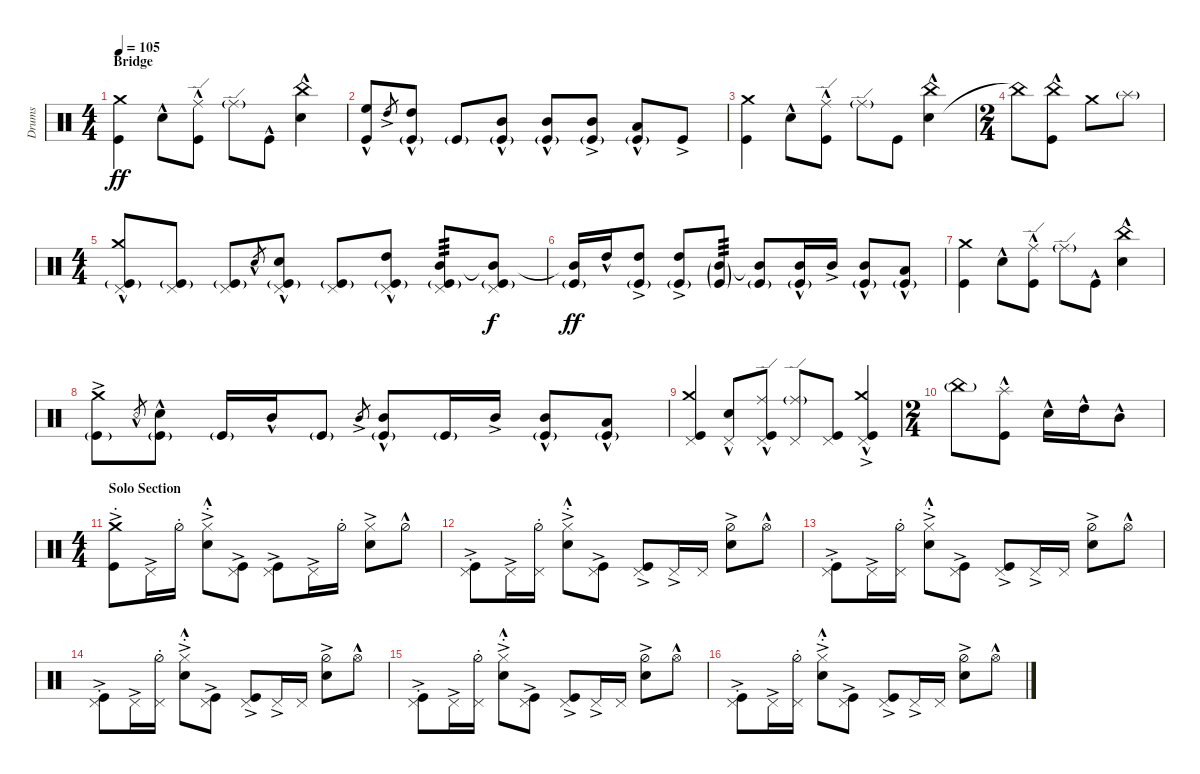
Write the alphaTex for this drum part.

\defaultSystemsLayout 4
\otherSystemsTrackNameOrientation horizontal
\chordDiagramsInScore
\track ("Drumkit" "Drums") {instrument percussion}
\staff {score}
\articulation defaults
\ts (4 4)
\section ("" "Bridge")
\tempo 105
\clef neutral
\scale
0.5
\ks c
("Kick (hit)" "Crash medium (hit)").4{dy ff} "Snare (hit) 2"{hac}.8 ("Kick (hit)"{hac} "Ride (edge)"{hac}).8 "Ride (edge)"{g}.8 "Kick (hit)"{hac}.8 ("Snare (hit) 2"{hac} "China (hit)"{hac}).4 |
\scale
0.5 ("Kick (hit)"{hac} "High Floor Tom (hit)"{hac}).8 "High Tom (hit)"{ac}.8{gr} ("Kick (hit)"{g} "High Tom (hit)"{hac}).8 "Kick (hit)"{g}.8 ("Kick (hit)"{g} "Mid Tom (hit)"{hac}).8 ("Kick (hit)"{g} "Mid Tom (hit)"{hac}).8 ("Kick (hit)"{g} "Mid Tom (hit)"{ac}).8 ("Kick (hit)"{g} "Low Tom (hit)"{hac}).8 "Kick (hit)"{ac}.8 |
\scale
0.5 ("Kick (hit)" "Crash medium (hit)").4 "Snare (hit) 2"{hac}.8 ("Kick (hit)" "Ride (edge)"{hac}).8 "Ride (edge)"{g}.8 "Kick (hit)".8 ("Snare (hit) 2"{hac} "China (hit)"{hac}).4 |
\ts (2 4)
\scale
0.368794 "China (hit)"{t}.8 ("China (hit)"{hac} "Kick (hit)").8 "Crash medium (hit)".8 "Splash (hit)"{g}.8 |
\ts (4 4)
\scale
0.631206 ("Crash medium (hit)"{hac} "Pedal Hi-Hat (hit)" "Kick (hit)"{g}).8 ("Pedal Hi-Hat (hit)" "Kick (hit)"{g}).8 ("Pedal Hi-Hat (hit)" "Kick (hit)"{g}).8 "Snare (hit) 2"{hac}.8{gr} ("Snare (hit) 2"{hac} "Pedal Hi-Hat (hit)" "Kick (hit)"{g}).8 ("Pedal Hi-Hat (hit)" "Kick (hit)"{g}).8 ("High Tom (hit)"{hac} "Pedal Hi-Hat (hit)" "Kick (hit)"{g}).8 ("Mid Tom (hit)" "Pedal Hi-Hat (hit)" "Kick (hit)"{g}).8{tp 3} ("Mid Tom (hit)"{t} "Pedal Hi-Hat (hit)" "Kick (hit)"{g}).8{dy f} |
\scale
0.631206 ("Mid Tom (hit)"{t} "Kick (hit)"{g}).16{dy ff} "High Tom (hit)"{hac}.16 ("High Tom (hit)"{ac} "Kick (hit)"{g}).8 ("Kick (hit)"{g} "High Tom (hit)"{ac}).8 ("Kick (hit)"{g} "Mid Tom (hit)"{g}).8{tp 3} ("Kick (hit)"{g} "Mid Tom (hit)"{t}).8 ("Kick (hit)"{g} "Mid Tom (hit)"{hac}).16 "Mid Tom (hit)"{ac}.16 ("Kick (hit)"{g} "Mid Tom (hit)"{hac}).8 ("Kick (hit)"{g} "Low Tom (hit)"{hac}).8 |
\scale
0.368794 ("Kick (hit)" "Crash medium (hit)").4 "Snare (hit) 2"{hac}.8 ("Kick (hit)"{hac} "Ride (edge)"{hac}).8 "Ride (edge)"{g}.8 "Kick (hit)"{hac}.8 ("Snare (hit) 2"{hac} "China (hit)"{hac}).4 |
\scale
0.5 ("Kick (hit)"{g} "Crash medium (hit)"{ac}).8 "Snare (rim shot)"{hac}.8{gr} ("Kick (hit)"{g} "Snare (hit) 2"{hac}).8 "Kick (hit)"{g}.16 "Mid Tom (hit)"{hac}.16 "Kick (hit)"{g}.8 "Mid Tom (hit)"{ac}.8{gr} ("Kick (hit)"{g} "Mid Tom (hit)"{hac}).8 "Kick (hit)"{g}.16 "Mid Tom (hit)"{ac}.16 ("Kick (hit)"{g} "Mid Tom (hit)"{hac}).8 ("Kick (hit)"{g} "Low Tom (hit)"{hac}).8 |
\scale
0.5 ("Kick (hit)" "Crash medium (hit)" "Pedal Hi-Hat (hit)").4 ("Snare (hit) 2"{hac} "Pedal Hi-Hat (hit)").8 ("Kick (hit)"{hac} "Ride (edge)"{hac} "Pedal Hi-Hat (hit)").8 ("Ride (edge)"{g} "Pedal Hi-Hat (hit)").8 ("Kick (hit)" "Pedal Hi-Hat (hit)").8 ("Kick (hit)"{hac} "Crash medium (hit)"{ac} "Pedal Hi-Hat (hit)").4 |
\ts (2 4)
\scale
0.631206 "China (hit)"{g}.8 ("Kick (hit)"{hac} "Splash (hit)"{hac}).8 "Snare (hit) 2"{hac}.16 "High Tom (hit)"{hac}.16 "Mid Tom (hit)"{hac}.8 |
\ts (4 4)
\section ("" "Solo Section")
\scale
0.631206 ("Crash medium (hit)"{ac} "Kick (hit)"{ac st}).8 "Pedal Hi-Hat (hit)"{ac}.16 "Hi-Hat (half)"{st}.16 ("Snare (hit) 2"{ac} "Hi-Hat (closed)"{hac st}).8 ("Kick (hit)"{ac} "Pedal Hi-Hat (hit)"{ac}).8 ("Kick (hit)"{ac} "Pedal Hi-Hat (hit)"{ac}).8 "Pedal Hi-Hat (hit)"{ac}.16 "Hi-Hat (half)"{st}.16 ("Hi-Hat (closed)"{ac} "Snare (hit) 2"{ac}).8 "Hi-Hat (half)"{hac}.8 |
\scale
0.368794 ("Kick (hit)"{ac st} "Pedal Hi-Hat (hit)"{ac}).8 "Pedal Hi-Hat (hit)"{ac}.16 ("Pedal Hi-Hat (hit)" "Hi-Hat (half)"{st}).16 ("Snare (hit) 2"{ac} "Hi-Hat (closed)"{hac st}).8 ("Kick (hit)"{ac} "Pedal Hi-Hat (hit)").8 ("Kick (hit)"{ac} "Pedal Hi-Hat (hit)").8 "Pedal Hi-Hat (hit)"{ac}.16 "Pedal Hi-Hat (hit)".16 ("Hi-Hat (half)"{ac} "Snare (hit) 2"{ac}).8 "Hi-Hat (open)"{hac}.8 |
\scale
0.5 ("Kick (hit)"{ac st} "Pedal Hi-Hat (hit)"{ac}).8 "Pedal Hi-Hat (hit)"{ac}.16 ("Pedal Hi-Hat (hit)" "Hi-Hat (half)"{st}).16 ("Snare (hit) 2"{ac} "Hi-Hat (closed)"{hac st}).8 ("Kick (hit)"{ac} "Pedal Hi-Hat (hit)").8 ("Kick (hit)"{ac} "Pedal Hi-Hat (hit)").8 "Pedal Hi-Hat (hit)"{ac}.16 "Pedal Hi-Hat (hit)".16 ("Hi-Hat (half)"{ac} "Snare (hit) 2"{ac}).8 "Hi-Hat (open)"{hac}.8 |
\scale
0.5 ("Kick (hit)"{ac st} "Pedal Hi-Hat (hit)"{ac}).8 "Pedal Hi-Hat (hit)"{ac}.16 ("Pedal Hi-Hat (hit)" "Hi-Hat (half)"{st}).16 ("Snare (hit) 2"{ac} "Hi-Hat (closed)"{hac st}).8 ("Kick (hit)"{ac} "Pedal Hi-Hat (hit)").8 ("Kick (hit)"{ac} "Pedal Hi-Hat (hit)").8 "Pedal Hi-Hat (hit)"{ac}.16 "Pedal Hi-Hat (hit)".16 ("Hi-Hat (half)"{ac} "Snare (hit) 2"{ac}).8 "Hi-Hat (open)"{hac}.8 |
\scale
0.5 ("Kick (hit)"{ac st} "Pedal Hi-Hat (hit)"{ac}).8 "Pedal Hi-Hat (hit)"{ac}.16 ("Pedal Hi-Hat (hit)" "Hi-Hat (half)"{st}).16 ("Snare (hit) 2"{ac} "Hi-Hat (closed)"{hac st}).8 ("Kick (hit)"{ac} "Pedal Hi-Hat (hit)").8 ("Kick (hit)"{ac} "Pedal Hi-Hat (hit)").8 "Pedal Hi-Hat (hit)"{ac}.16 "Pedal Hi-Hat (hit)".16 ("Hi-Hat (half)"{ac} "Snare (hit) 2"{ac}).8 "Hi-Hat (open)"{hac}.8 |
\scale
0.5 ("Kick (hit)"{ac st} "Pedal Hi-Hat (hit)"{ac}).8 "Pedal Hi-Hat (hit)"{ac}.16 ("Pedal Hi-Hat (hit)" "Hi-Hat (half)"{st}).16 ("Snare (hit) 2"{ac} "Hi-Hat (closed)"{hac st}).8 ("Kick (hit)"{ac} "Pedal Hi-Hat (hit)").8 ("Kick (hit)"{ac} "Pedal Hi-Hat (hit)").8 "Pedal Hi-Hat (hit)"{ac}.16 "Pedal Hi-Hat (hit)".16 ("Hi-Hat (half)"{ac} "Snare (hit) 2"{ac}).8 "Hi-Hat (open)"{hac}.8
